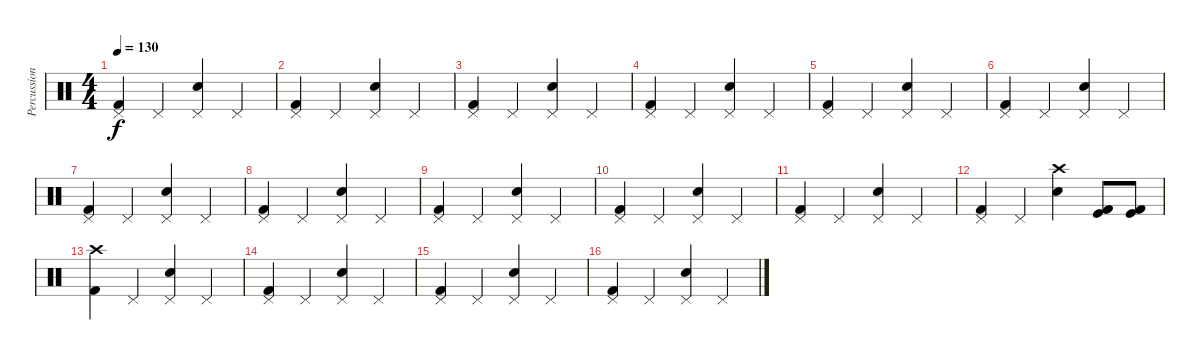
\track ("Percussions" "Percussion") {instrument percussion}
\staff {score}
\articulation defaults
\ts (4 4)
\tempo 130
\clef neutral
\ks c
("Pedal Hi-Hat (hit)" "Kick (hit) 2").4{dy f} "Pedal Hi-Hat (hit)".4 ("Pedal Hi-Hat (hit)" "Snare (hit) 2").4 "Pedal Hi-Hat (hit)".4 |
("Pedal Hi-Hat (hit)" "Kick (hit) 2").4 "Pedal Hi-Hat (hit)".4 ("Pedal Hi-Hat (hit)" "Snare (hit) 2").4 "Pedal Hi-Hat (hit)".4 |
("Pedal Hi-Hat (hit)" "Kick (hit) 2").4 "Pedal Hi-Hat (hit)".4 ("Pedal Hi-Hat (hit)" "Snare (hit) 2").4 "Pedal Hi-Hat (hit)".4 |
("Pedal Hi-Hat (hit)" "Kick (hit) 2").4 "Pedal Hi-Hat (hit)".4 ("Pedal Hi-Hat (hit)" "Snare (hit) 2").4 "Pedal Hi-Hat (hit)".4 |
("Pedal Hi-Hat (hit)" "Kick (hit) 2").4 "Pedal Hi-Hat (hit)".4 ("Pedal Hi-Hat (hit)" "Snare (hit) 2").4 "Pedal Hi-Hat (hit)".4 |
("Pedal Hi-Hat (hit)" "Kick (hit) 2").4 "Pedal Hi-Hat (hit)".4 ("Pedal Hi-Hat (hit)" "Snare (hit) 2").4 "Pedal Hi-Hat (hit)".4 |
("Pedal Hi-Hat (hit)" "Kick (hit) 2").4 "Pedal Hi-Hat (hit)".4 ("Pedal Hi-Hat (hit)" "Snare (hit) 2").4 "Pedal Hi-Hat (hit)".4 |
("Pedal Hi-Hat (hit)" "Kick (hit) 2").4 "Pedal Hi-Hat (hit)".4 ("Pedal Hi-Hat (hit)" "Snare (hit) 2").4 "Pedal Hi-Hat (hit)".4 |
("Pedal Hi-Hat (hit)" "Kick (hit) 2").4 "Pedal Hi-Hat (hit)".4 ("Pedal Hi-Hat (hit)" "Snare (hit) 2").4 "Pedal Hi-Hat (hit)".4 |
("Pedal Hi-Hat (hit)" "Kick (hit) 2").4 "Pedal Hi-Hat (hit)".4 ("Pedal Hi-Hat (hit)" "Snare (hit) 2").4 "Pedal Hi-Hat (hit)".4 |
("Pedal Hi-Hat (hit)" "Kick (hit) 2").4 "Pedal Hi-Hat (hit)".4 ("Pedal Hi-Hat (hit)" "Snare (hit) 2").4 "Pedal Hi-Hat (hit)".4 |
("Pedal Hi-Hat (hit)" "Kick (hit) 2").4 "Pedal Hi-Hat (hit)".4 ("Crash high (hit)" "Snare (hit) 2").4 ("Kick (hit)" "Kick (hit) 2").8 ("Kick (hit)" "Kick (hit) 2").8 |
("Crash high (hit)" "Kick (hit) 2").4 "Pedal Hi-Hat (hit)".4 ("Pedal Hi-Hat (hit)" "Snare (hit) 2").4 "Pedal Hi-Hat (hit)".4 |
("Pedal Hi-Hat (hit)" "Kick (hit) 2").4 "Pedal Hi-Hat (hit)".4 ("Pedal Hi-Hat (hit)" "Snare (hit) 2").4 "Pedal Hi-Hat (hit)".4 |
("Pedal Hi-Hat (hit)" "Kick (hit) 2").4 "Pedal Hi-Hat (hit)".4 ("Pedal Hi-Hat (hit)" "Snare (hit) 2").4 "Pedal Hi-Hat (hit)".4 |
("Pedal Hi-Hat (hit)" "Kick (hit) 2").4 "Pedal Hi-Hat (hit)".4 ("Pedal Hi-Hat (hit)" "Snare (hit) 2").4 "Pedal Hi-Hat (hit)".4
